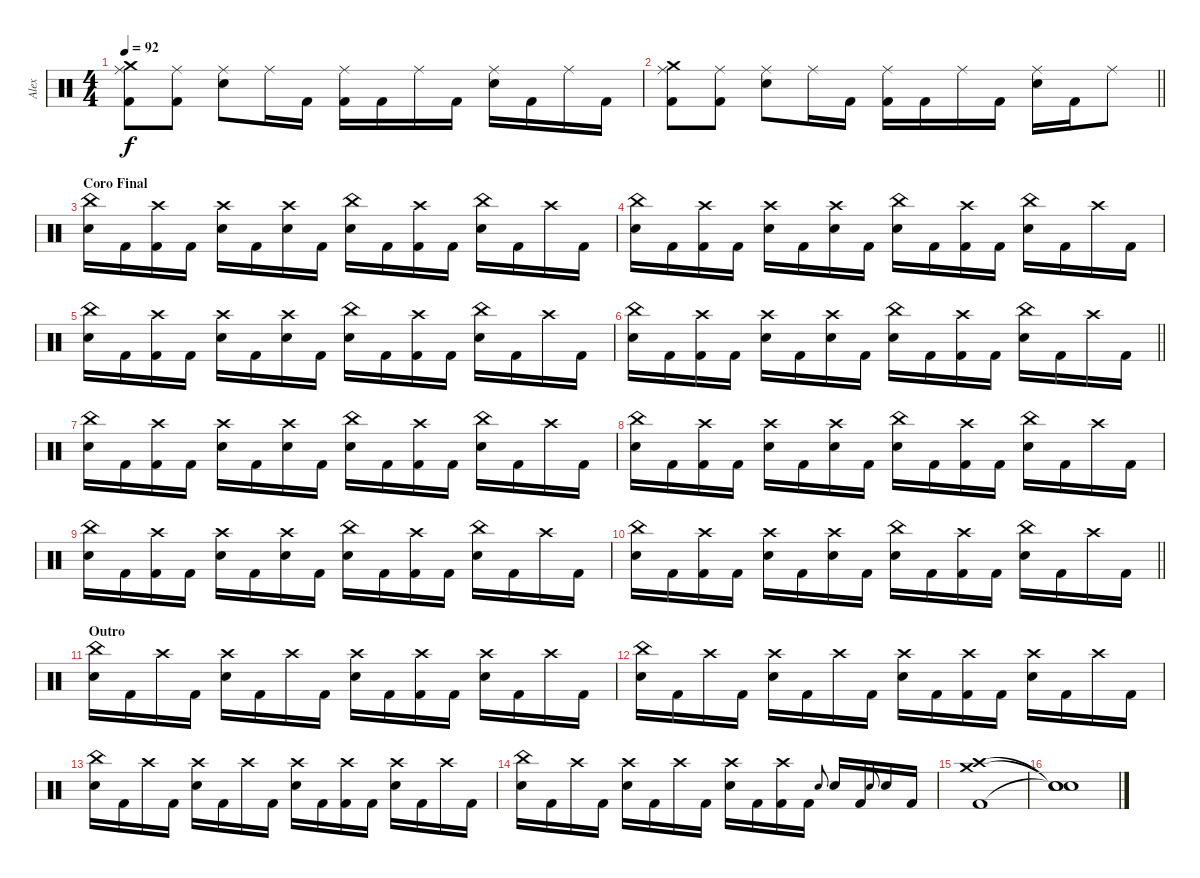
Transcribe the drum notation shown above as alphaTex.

\track ("Alex" "Alex") {instrument percussion}
\staff
\articulation defaults
\ts (4 4)
\tempo 92
\clef neutral
\ks c
("Crash medium (hit)" "Ride (middle)" "Kick (hit) 2").8{dy f} ("Ride (middle)" "Kick (hit) 2").8 ("Ride (middle)" "Electric Snare (hit)").8 "Ride (middle)".16 "Kick (hit) 2".16 ("Ride (middle)" "Kick (hit) 2").16 "Kick (hit) 2".16 "Ride (middle)".16 "Kick (hit) 2".16 ("Ride (middle)" "Electric Snare (hit)").16 "Kick (hit) 2".16 "Ride (middle)".16 "Kick (hit) 2".16 |
\barLineRight lightlight
("Crash medium (hit)" "Ride (middle)" "Kick (hit) 2").8 ("Ride (middle)" "Kick (hit) 2").8 ("Ride (middle)" "Electric Snare (hit)").8 "Ride (middle)".16 "Kick (hit) 2".16 ("Ride (middle)" "Kick (hit) 2").16 "Kick (hit) 2".16 "Ride (middle)".16 "Kick (hit) 2".16 ("Ride (middle)" "Electric Snare (hit)").16 "Kick (hit) 2".16 "Ride (middle)".8 |
\section ("" "Coro Final")
("China (hit)" "Electric Snare (hit)").16 "Kick (hit) 2".16 ("Crash high (hit)" "Kick (hit) 2").16 "Kick (hit) 2".16 ("Crash high (hit)" "Electric Snare (hit)").16 "Kick (hit) 2".16 ("Crash high (hit)" "Electric Snare (hit)").16 "Kick (hit) 2".16 ("China (hit)" "Electric Snare (hit)").16 "Kick (hit) 2".16 ("Crash high (hit)" "Kick (hit) 2").16 "Kick (hit) 2".16 ("China (hit)" "Electric Snare (hit)").16 "Kick (hit) 2".16 "Crash high (hit)".16 "Kick (hit) 2".16 |
("China (hit)" "Electric Snare (hit)").16 "Kick (hit) 2".16 ("Crash high (hit)" "Kick (hit) 2").16 "Kick (hit) 2".16 ("Crash high (hit)" "Electric Snare (hit)").16 "Kick (hit) 2".16 ("Crash high (hit)" "Electric Snare (hit)").16 "Kick (hit) 2".16 ("China (hit)" "Electric Snare (hit)").16 "Kick (hit) 2".16 ("Crash high (hit)" "Kick (hit) 2").16 "Kick (hit) 2".16 ("China (hit)" "Electric Snare (hit)").16 "Kick (hit) 2".16 "Crash high (hit)".16 "Kick (hit) 2".16 |
("China (hit)" "Electric Snare (hit)").16 "Kick (hit) 2".16 ("Crash high (hit)" "Kick (hit) 2").16 "Kick (hit) 2".16 ("Crash high (hit)" "Electric Snare (hit)").16 "Kick (hit) 2".16 ("Crash high (hit)" "Electric Snare (hit)").16 "Kick (hit) 2".16 ("China (hit)" "Electric Snare (hit)").16 "Kick (hit) 2".16 ("Crash high (hit)" "Kick (hit) 2").16 "Kick (hit) 2".16 ("China (hit)" "Electric Snare (hit)").16 "Kick (hit) 2".16 "Crash high (hit)".16 "Kick (hit) 2".16 |
\barLineRight lightlight
("China (hit)" "Electric Snare (hit)").16 "Kick (hit) 2".16 ("Crash high (hit)" "Kick (hit) 2").16 "Kick (hit) 2".16 ("Crash high (hit)" "Electric Snare (hit)").16 "Kick (hit) 2".16 ("Crash high (hit)" "Electric Snare (hit)").16 "Kick (hit) 2".16 ("China (hit)" "Electric Snare (hit)").16 "Kick (hit) 2".16 ("Crash high (hit)" "Kick (hit) 2").16 "Kick (hit) 2".16 ("China (hit)" "Electric Snare (hit)").16 "Kick (hit) 2".16 "Crash high (hit)".16 "Kick (hit) 2".16 |
("China (hit)" "Electric Snare (hit)").16 "Kick (hit) 2".16 ("Crash high (hit)" "Kick (hit) 2").16 "Kick (hit) 2".16 ("Crash high (hit)" "Electric Snare (hit)").16 "Kick (hit) 2".16 ("Crash high (hit)" "Electric Snare (hit)").16 "Kick (hit) 2".16 ("China (hit)" "Electric Snare (hit)").16 "Kick (hit) 2".16 ("Crash high (hit)" "Kick (hit) 2").16 "Kick (hit) 2".16 ("China (hit)" "Electric Snare (hit)").16 "Kick (hit) 2".16 "Crash high (hit)".16 "Kick (hit) 2".16 |
("China (hit)" "Electric Snare (hit)").16 "Kick (hit) 2".16 ("Crash high (hit)" "Kick (hit) 2").16 "Kick (hit) 2".16 ("Crash high (hit)" "Electric Snare (hit)").16 "Kick (hit) 2".16 ("Crash high (hit)" "Electric Snare (hit)").16 "Kick (hit) 2".16 ("China (hit)" "Electric Snare (hit)").16 "Kick (hit) 2".16 ("Crash high (hit)" "Kick (hit) 2").16 "Kick (hit) 2".16 ("China (hit)" "Electric Snare (hit)").16 "Kick (hit) 2".16 "Crash high (hit)".16 "Kick (hit) 2".16 |
("China (hit)" "Electric Snare (hit)").16 "Kick (hit) 2".16 ("Crash high (hit)" "Kick (hit) 2").16 "Kick (hit) 2".16 ("Crash high (hit)" "Electric Snare (hit)").16 "Kick (hit) 2".16 ("Crash high (hit)" "Electric Snare (hit)").16 "Kick (hit) 2".16 ("China (hit)" "Electric Snare (hit)").16 "Kick (hit) 2".16 ("Crash high (hit)" "Kick (hit) 2").16 "Kick (hit) 2".16 ("China (hit)" "Electric Snare (hit)").16 "Kick (hit) 2".16 "Crash high (hit)".16 "Kick (hit) 2".16 |
\barLineRight lightlight
("China (hit)" "Electric Snare (hit)").16 "Kick (hit) 2".16 ("Crash high (hit)" "Kick (hit) 2").16 "Kick (hit) 2".16 ("Crash high (hit)" "Electric Snare (hit)").16 "Kick (hit) 2".16 ("Crash high (hit)" "Electric Snare (hit)").16 "Kick (hit) 2".16 ("China (hit)" "Electric Snare (hit)").16 "Kick (hit) 2".16 ("Crash high (hit)" "Kick (hit) 2").16 "Kick (hit) 2".16 ("China (hit)" "Electric Snare (hit)").16 "Kick (hit) 2".16 "Crash high (hit)".16 "Kick (hit) 2".16 |
\section ("" "Outro")
("China (hit)" "Electric Snare (hit)").16 "Kick (hit) 2".16 "Crash high (hit)".16 "Kick (hit) 2".16 ("Crash high (hit)" "Electric Snare (hit)").16 "Kick (hit) 2".16 "Crash high (hit)".16 "Kick (hit) 2".16 ("Crash high (hit)" "Electric Snare (hit)").16 "Kick (hit) 2".16 ("Crash high (hit)" "Kick (hit) 2").16 "Kick (hit) 2".16 ("Crash high (hit)" "Electric Snare (hit)").16 "Kick (hit) 2".16 "Crash high (hit)".16 "Kick (hit) 2".16 |
("China (hit)" "Electric Snare (hit)").16 "Kick (hit) 2".16 "Crash high (hit)".16 "Kick (hit) 2".16 ("Crash high (hit)" "Electric Snare (hit)").16 "Kick (hit) 2".16 "Crash high (hit)".16 "Kick (hit) 2".16 ("Crash high (hit)" "Electric Snare (hit)").16 "Kick (hit) 2".16 ("Crash high (hit)" "Kick (hit) 2").16 "Kick (hit) 2".16 ("Crash high (hit)" "Electric Snare (hit)").16 "Kick (hit) 2".16 "Crash high (hit)".16 "Kick (hit) 2".16 |
("China (hit)" "Electric Snare (hit)").16 "Kick (hit) 2".16 "Crash high (hit)".16 "Kick (hit) 2".16 ("Crash high (hit)" "Electric Snare (hit)").16 "Kick (hit) 2".16 "Crash high (hit)".16 "Kick (hit) 2".16 ("Crash high (hit)" "Electric Snare (hit)").16 "Kick (hit) 2".16 ("Crash high (hit)" "Kick (hit) 2").16 "Kick (hit) 2".16 ("Crash high (hit)" "Electric Snare (hit)").16 "Kick (hit) 2".16 "Crash high (hit)".16 "Kick (hit) 2".16 |
("China (hit)" "Electric Snare (hit)").16 "Kick (hit) 2".16 "Crash high (hit)".16 "Kick (hit) 2".16 ("Crash high (hit)" "Electric Snare (hit)").16 "Kick (hit) 2".16 "Crash high (hit)".16 "Kick (hit) 2".16 ("Crash high (hit)" "Electric Snare (hit)").16 "Kick (hit) 2".16 ("Crash high (hit)" "Kick (hit) 2").16 "Kick (hit) 2".16 "Electric Snare (hit)".8{gr onbeat} "Electric Snare (hit)".16 "Kick (hit) 2".16 "Electric Snare (hit)".8{gr onbeat} "Electric Snare (hit)".16 "Kick (hit) 2".16 |
("Crash medium (hit)" "Crash high (hit)" "Kick (hit) 2").1 |
("Snare (hit)"{t} "Snare (hit)"{t} "Snare (hit)"{t}).1
